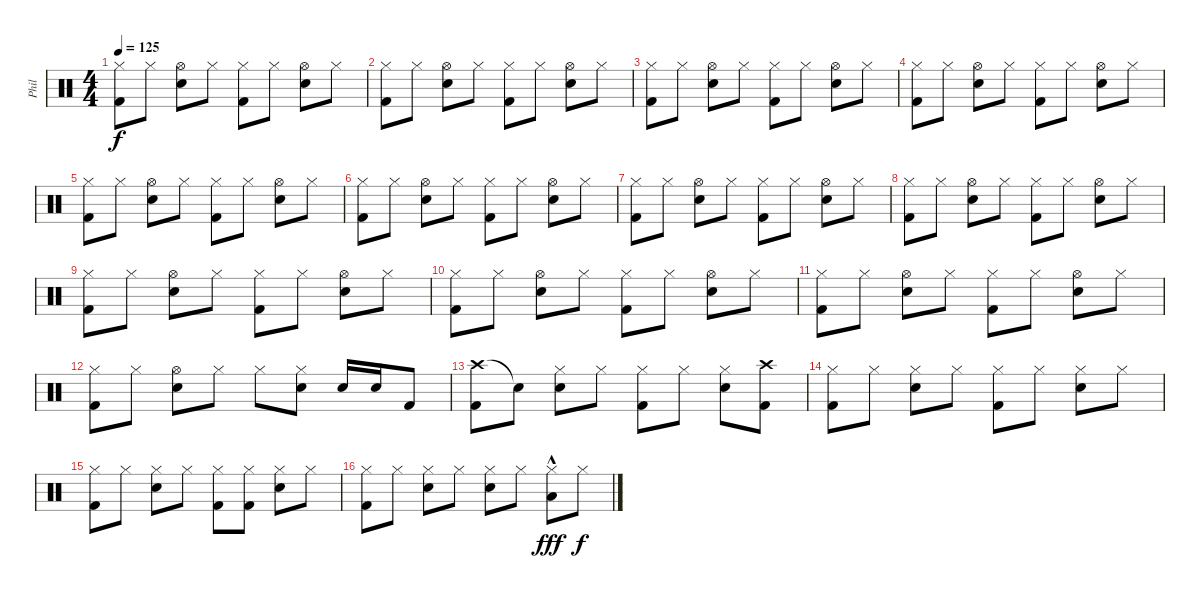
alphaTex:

\track ("Phil" "Phil") {instrument percussion}
\staff {score}
\articulation defaults
\ts (4 4)
\tempo 125
\clef neutral
\ks c
("Hi-Hat (closed)" "Kick (hit) 2").8{dy f} "Hi-Hat (closed)".8 ("Hi-Hat (open)" "Snare (hit) 2").8 "Hi-Hat (closed)".8 ("Hi-Hat (closed)" "Kick (hit) 2").8 "Hi-Hat (closed)".8 ("Hi-Hat (open)" "Snare (hit) 2").8 "Hi-Hat (closed)".8 |
("Hi-Hat (closed)" "Kick (hit) 2").8 "Hi-Hat (closed)".8 ("Hi-Hat (open)" "Snare (hit) 2").8 "Hi-Hat (closed)".8 ("Hi-Hat (closed)" "Kick (hit) 2").8 "Hi-Hat (closed)".8 ("Hi-Hat (open)" "Snare (hit) 2").8 "Hi-Hat (closed)".8 |
("Hi-Hat (closed)" "Kick (hit) 2").8 "Hi-Hat (closed)".8 ("Hi-Hat (open)" "Snare (hit) 2").8 "Hi-Hat (closed)".8 ("Hi-Hat (closed)" "Kick (hit) 2").8 "Hi-Hat (closed)".8 ("Hi-Hat (open)" "Snare (hit) 2").8 "Hi-Hat (closed)".8 |
("Hi-Hat (closed)" "Kick (hit) 2").8 "Hi-Hat (closed)".8 ("Hi-Hat (open)" "Snare (hit) 2").8 "Hi-Hat (closed)".8 ("Hi-Hat (closed)" "Kick (hit) 2").8 "Hi-Hat (closed)".8 ("Hi-Hat (open)" "Snare (hit) 2").8 "Hi-Hat (closed)".8 |
("Hi-Hat (closed)" "Kick (hit) 2").8 "Hi-Hat (closed)".8 ("Hi-Hat (open)" "Snare (hit) 2").8 "Hi-Hat (closed)".8 ("Hi-Hat (closed)" "Kick (hit) 2").8 "Hi-Hat (closed)".8 ("Hi-Hat (open)" "Snare (hit) 2").8 "Hi-Hat (closed)".8 |
("Hi-Hat (closed)" "Kick (hit) 2").8 "Hi-Hat (closed)".8 ("Hi-Hat (open)" "Snare (hit) 2").8 "Hi-Hat (closed)".8 ("Hi-Hat (closed)" "Kick (hit) 2").8 "Hi-Hat (closed)".8 ("Hi-Hat (open)" "Snare (hit) 2").8 "Hi-Hat (closed)".8 |
("Hi-Hat (closed)" "Kick (hit) 2").8 "Hi-Hat (closed)".8 ("Hi-Hat (open)" "Snare (hit) 2").8 "Hi-Hat (closed)".8 ("Hi-Hat (closed)" "Kick (hit) 2").8 "Hi-Hat (closed)".8 ("Hi-Hat (open)" "Snare (hit) 2").8 "Hi-Hat (closed)".8 |
("Hi-Hat (closed)" "Kick (hit) 2").8 "Hi-Hat (closed)".8 ("Hi-Hat (open)" "Snare (hit) 2").8 "Hi-Hat (closed)".8 ("Hi-Hat (closed)" "Kick (hit) 2").8 "Hi-Hat (closed)".8 ("Hi-Hat (open)" "Snare (hit) 2").8 "Hi-Hat (closed)".8 |
("Hi-Hat (closed)" "Kick (hit) 2").8 "Hi-Hat (closed)".8 ("Hi-Hat (open)" "Snare (hit) 2").8 "Hi-Hat (closed)".8 ("Hi-Hat (closed)" "Kick (hit) 2").8 "Hi-Hat (closed)".8 ("Hi-Hat (open)" "Snare (hit) 2").8 "Hi-Hat (closed)".8 |
("Hi-Hat (closed)" "Kick (hit) 2").8 "Hi-Hat (closed)".8 ("Hi-Hat (open)" "Snare (hit) 2").8 "Hi-Hat (closed)".8 ("Hi-Hat (closed)" "Kick (hit) 2").8 "Hi-Hat (closed)".8 ("Hi-Hat (open)" "Snare (hit) 2").8 "Hi-Hat (closed)".8 |
("Hi-Hat (closed)" "Kick (hit) 2").8 "Hi-Hat (closed)".8 ("Hi-Hat (open)" "Snare (hit) 2").8 "Hi-Hat (closed)".8 ("Hi-Hat (closed)" "Kick (hit) 2").8 "Hi-Hat (closed)".8 ("Hi-Hat (open)" "Snare (hit) 2").8 "Hi-Hat (closed)".8 |
("Hi-Hat (closed)" "Kick (hit) 2").8 "Hi-Hat (closed)".8 ("Hi-Hat (open)" "Snare (hit) 2").8 "Hi-Hat (closed)".8 "Hi-Hat (closed)".8 ("Hi-Hat (closed)" "Snare (hit) 2").8 "Snare (hit) 2".16 "Snare (hit) 2".16 "Kick (hit) 2".8 |
("Crash high (hit)" "Kick (hit) 2").8 "Snare (hit)"{t}.8 ("Hi-Hat (closed)" "Snare (hit) 2").8 "Hi-Hat (closed)".8 ("Hi-Hat (closed)" "Kick (hit) 2").8 "Hi-Hat (closed)".8 ("Hi-Hat (closed)" "Snare (hit) 2").8 ("Crash high (hit)" "Kick (hit) 2").8 |
("Hi-Hat (closed)" "Kick (hit) 2").8 "Hi-Hat (closed)".8 ("Hi-Hat (closed)" "Snare (hit) 2").8 "Hi-Hat (closed)".8 ("Hi-Hat (closed)" "Kick (hit) 2").8 "Hi-Hat (closed)".8 ("Hi-Hat (closed)" "Snare (hit) 2").8 "Hi-Hat (closed)".8 |
("Hi-Hat (closed)" "Kick (hit) 2").8 "Hi-Hat (closed)".8 ("Hi-Hat (closed)" "Snare (hit) 2").8 "Hi-Hat (closed)".8 ("Hi-Hat (closed)" "Kick (hit) 2").8 ("Hi-Hat (closed)" "Kick (hit) 2").8 ("Hi-Hat (closed)" "Snare (hit) 2").8 "Hi-Hat (closed)".8 |
("Hi-Hat (closed)" "Kick (hit) 2").8 "Hi-Hat (closed)".8 ("Hi-Hat (closed)" "Snare (hit) 2").8 "Hi-Hat (closed)".8 ("Hi-Hat (closed)" "Snare (hit) 2").8 "Hi-Hat (closed)".8 ("Hi-Hat (closed)" "Low Tom (hit)"{hac}).8{dy fff} "Hi-Hat (closed)".8{dy f}
